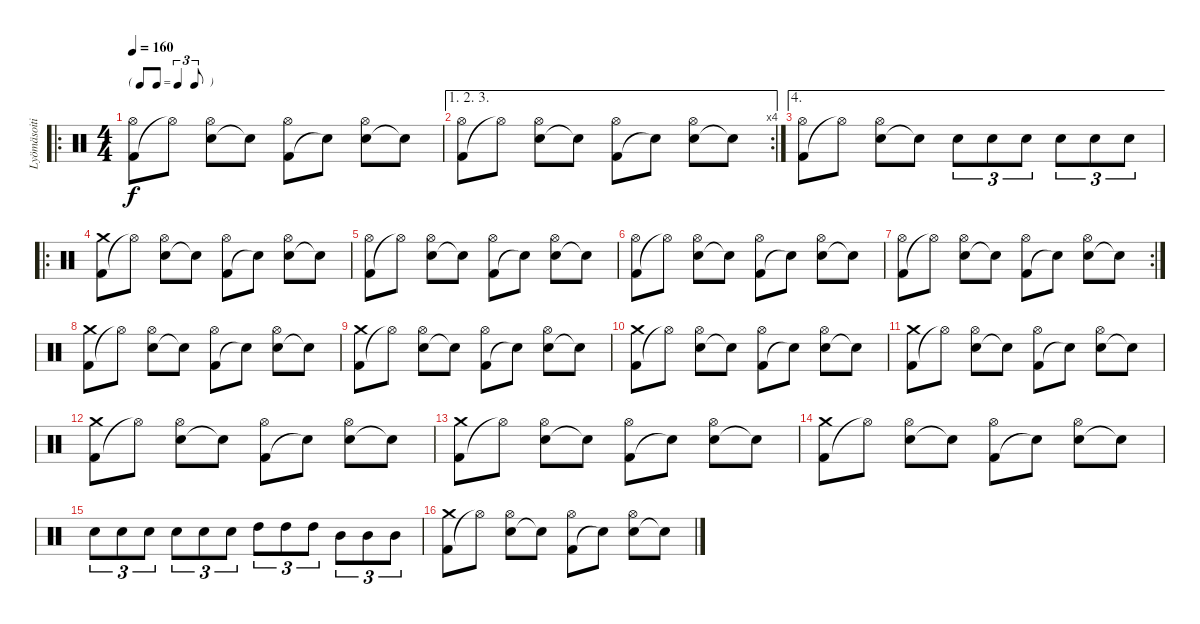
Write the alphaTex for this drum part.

\track ("Lyömäsoitin" "Lyömäsoiti") {instrument percussion}
\staff {score}
\articulation defaults
\ro
\ts (4 4)
\tf triplet8th
\tempo 160
\clef neutral
\ks c
("Kick (hit) 2" "Hi-Hat (open)").8{dy f} "Hi-Hat (open)"{t}.8 ("Electric Snare (hit)" "Hi-Hat (open)").8 "Snare (hit)"{t}.8 ("Kick (hit) 2" "Hi-Hat (open)").8 "Snare (hit)"{t}.8 ("Electric Snare (hit)" "Hi-Hat (open)").8 "Snare (hit)"{t}.8 |
\ae (1 2 3)
\rc 4
("Kick (hit) 2" "Hi-Hat (open)").8 "Hi-Hat (open)"{t}.8 ("Electric Snare (hit)" "Hi-Hat (open)").8 "Snare (hit)"{t}.8 ("Kick (hit) 2" "Hi-Hat (open)").8 "Snare (hit)"{t}.8 ("Electric Snare (hit)" "Hi-Hat (open)").8 "Snare (hit)"{t}.8 |
\ae 4
("Kick (hit) 2" "Hi-Hat (open)").8 "Hi-Hat (open)"{t}.8 ("Electric Snare (hit)" "Hi-Hat (open)").8 "Snare (hit)"{t}.8 "Electric Snare (hit)".8{tu (3 2)} "Electric Snare (hit)".8{tu (3 2)} "Electric Snare (hit)".8{tu (3 2)} "Electric Snare (hit)".8{tu (3 2)} "Electric Snare (hit)".8{tu (3 2)} "Electric Snare (hit)".8{tu (3 2)} |
\ro
("Kick (hit) 2" "Crash medium (hit)").8 "Hi-Hat (open)"{t}.8 ("Electric Snare (hit)" "Hi-Hat (open)").8 "Snare (hit)"{t}.8 ("Kick (hit) 2" "Hi-Hat (open)").8 "Snare (hit)"{t}.8 ("Electric Snare (hit)" "Hi-Hat (open)").8 "Snare (hit)"{t}.8 |
("Kick (hit) 2" "Hi-Hat (open)").8 "Hi-Hat (open)"{t}.8 ("Electric Snare (hit)" "Hi-Hat (open)").8 "Snare (hit)"{t}.8 ("Kick (hit) 2" "Hi-Hat (open)").8 "Snare (hit)"{t}.8 ("Electric Snare (hit)" "Hi-Hat (open)").8 "Snare (hit)"{t}.8 |
("Kick (hit) 2" "Hi-Hat (open)").8 "Hi-Hat (open)"{t}.8 ("Electric Snare (hit)" "Hi-Hat (open)").8 "Snare (hit)"{t}.8 ("Kick (hit) 2" "Hi-Hat (open)").8 "Snare (hit)"{t}.8 ("Electric Snare (hit)" "Hi-Hat (open)").8 "Snare (hit)"{t}.8 |
\rc 2
("Kick (hit) 2" "Hi-Hat (open)").8 "Hi-Hat (open)"{t}.8 ("Electric Snare (hit)" "Hi-Hat (open)").8 "Snare (hit)"{t}.8 ("Kick (hit) 2" "Hi-Hat (open)").8 "Snare (hit)"{t}.8 ("Electric Snare (hit)" "Hi-Hat (open)").8 "Snare (hit)"{t}.8 |
("Kick (hit) 2" "Crash medium (hit)").8 "Hi-Hat (open)"{t}.8 ("Electric Snare (hit)" "Hi-Hat (open)").8 "Snare (hit)"{t}.8 ("Kick (hit) 2" "Hi-Hat (open)").8 "Snare (hit)"{t}.8 ("Electric Snare (hit)" "Hi-Hat (open)").8 "Snare (hit)"{t}.8 |
("Kick (hit) 2" "Crash medium (hit)").8 "Hi-Hat (open)"{t}.8 ("Electric Snare (hit)" "Hi-Hat (open)").8 "Snare (hit)"{t}.8 ("Kick (hit) 2" "Hi-Hat (open)").8 "Snare (hit)"{t}.8 ("Electric Snare (hit)" "Hi-Hat (open)").8 "Snare (hit)"{t}.8 |
("Kick (hit) 2" "Crash medium (hit)").8 "Hi-Hat (open)"{t}.8 ("Electric Snare (hit)" "Hi-Hat (open)").8 "Snare (hit)"{t}.8 ("Kick (hit) 2" "Hi-Hat (open)").8 "Snare (hit)"{t}.8 ("Electric Snare (hit)" "Hi-Hat (open)").8 "Snare (hit)"{t}.8 |
("Kick (hit) 2" "Crash medium (hit)").8 "Hi-Hat (open)"{t}.8 ("Electric Snare (hit)" "Hi-Hat (open)").8 "Snare (hit)"{t}.8 ("Kick (hit) 2" "Hi-Hat (open)").8 "Snare (hit)"{t}.8 ("Electric Snare (hit)" "Hi-Hat (open)").8 "Snare (hit)"{t}.8 |
("Kick (hit) 2" "Crash medium (hit)").8 "Hi-Hat (open)"{t}.8 ("Electric Snare (hit)" "Hi-Hat (open)").8 "Snare (hit)"{t}.8 ("Kick (hit) 2" "Hi-Hat (open)").8 "Snare (hit)"{t}.8 ("Electric Snare (hit)" "Hi-Hat (open)").8 "Snare (hit)"{t}.8 |
("Kick (hit) 2" "Crash medium (hit)").8 "Hi-Hat (open)"{t}.8 ("Electric Snare (hit)" "Hi-Hat (open)").8 "Snare (hit)"{t}.8 ("Kick (hit) 2" "Hi-Hat (open)").8 "Snare (hit)"{t}.8 ("Electric Snare (hit)" "Hi-Hat (open)").8 "Snare (hit)"{t}.8 |
("Kick (hit) 2" "Crash medium (hit)").8 "Hi-Hat (open)"{t}.8 ("Electric Snare (hit)" "Hi-Hat (open)").8 "Snare (hit)"{t}.8 ("Kick (hit) 2" "Hi-Hat (open)").8 "Snare (hit)"{t}.8 ("Electric Snare (hit)" "Hi-Hat (open)").8 "Electric Snare (hit)"{t}.8 |
"Electric Snare (hit)".8{tu (3 2)} "Electric Snare (hit)".8{tu (3 2)} "Electric Snare (hit)".8{tu (3 2)} "Electric Snare (hit)".8{tu (3 2)} "Electric Snare (hit)".8{tu (3 2)} "Electric Snare (hit)".8{tu (3 2)} "High Tom (hit)".8{tu (3 2)} "High Tom (hit)".8{tu (3 2)} "High Tom (hit)".8{tu (3 2)} "Mid Tom (hit)".8{tu (3 2)} "Mid Tom (hit)".8{tu (3 2)} "Mid Tom (hit)".8{tu (3 2)} |
("Kick (hit) 2" "Crash medium (hit)").8 "Hi-Hat (open)"{t}.8 ("Electric Snare (hit)" "Hi-Hat (open)").8 "Snare (hit)"{t}.8 ("Kick (hit) 2" "Hi-Hat (open)").8 "Snare (hit)"{t}.8 ("Electric Snare (hit)" "Hi-Hat (open)").8 "Snare (hit)"{t}.8
